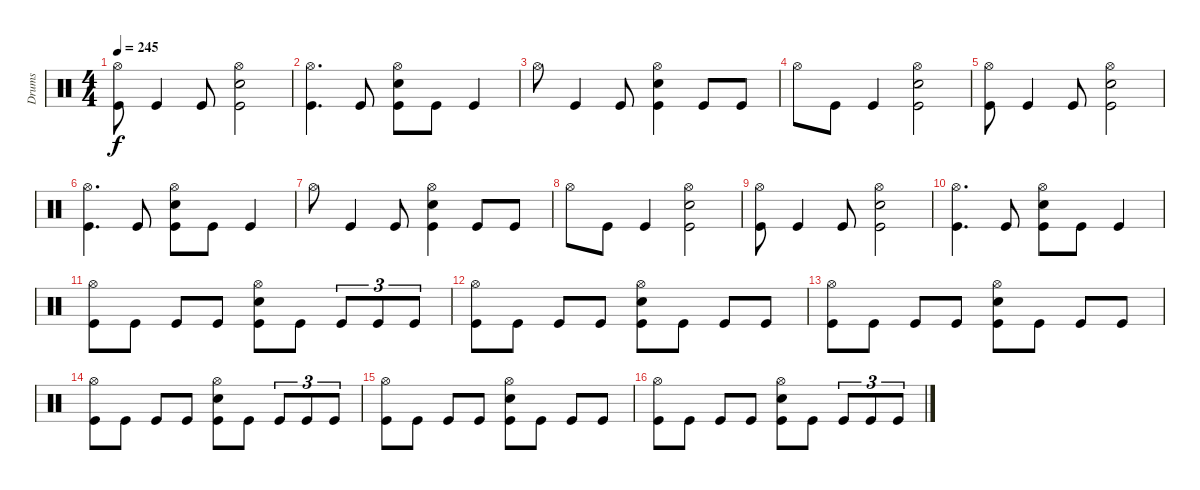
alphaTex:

\track ("Drums" "Drums") {instrument percussion}
\staff {score}
\articulation defaults
\ts (4 4)
\tempo 245
\clef neutral
\ks c
("Hi-Hat (open)" "Kick (hit)").8{dy f} "Kick (hit)".4 "Kick (hit)".8 ("Hi-Hat (open)" "Electric Snare (hit)" "Kick (hit)").2 |
("Hi-Hat (open)" "Kick (hit)").4{d} "Kick (hit)".8 ("Hi-Hat (open)" "Electric Snare (hit)" "Kick (hit)").8 "Kick (hit)".8 "Kick (hit)".4 |
"Hi-Hat (open)".8 "Kick (hit)".4 "Kick (hit)".8 ("Hi-Hat (open)" "Electric Snare (hit)" "Kick (hit)").4 "Kick (hit)".8 "Kick (hit)".8 |
"Hi-Hat (open)".8 "Kick (hit)".8 "Kick (hit)".4 ("Hi-Hat (open)" "Electric Snare (hit)" "Kick (hit)").2 |
("Hi-Hat (open)" "Kick (hit)").8 "Kick (hit)".4 "Kick (hit)".8 ("Hi-Hat (open)" "Electric Snare (hit)" "Kick (hit)").2 |
("Hi-Hat (open)" "Kick (hit)").4{d} "Kick (hit)".8 ("Hi-Hat (open)" "Electric Snare (hit)" "Kick (hit)").8 "Kick (hit)".8 "Kick (hit)".4 |
"Hi-Hat (open)".8 "Kick (hit)".4 "Kick (hit)".8 ("Hi-Hat (open)" "Electric Snare (hit)" "Kick (hit)").4 "Kick (hit)".8 "Kick (hit)".8 |
"Hi-Hat (open)".8 "Kick (hit)".8 "Kick (hit)".4 ("Hi-Hat (open)" "Electric Snare (hit)" "Kick (hit)").2 |
("Hi-Hat (open)" "Kick (hit)").8 "Kick (hit)".4 "Kick (hit)".8 ("Hi-Hat (open)" "Electric Snare (hit)" "Kick (hit)").2 |
("Hi-Hat (open)" "Kick (hit)").4{d} "Kick (hit)".8 ("Hi-Hat (open)" "Electric Snare (hit)" "Kick (hit)").8 "Kick (hit)".8 "Kick (hit)".4 |
("Hi-Hat (open)" "Kick (hit)").8 "Kick (hit)".8 "Kick (hit)".8 "Kick (hit)".8 ("Hi-Hat (open)" "Electric Snare (hit)" "Kick (hit)").8 "Kick (hit)".8 "Kick (hit)".8{tu (3 2)} "Kick (hit)".8{tu (3 2)} "Kick (hit)".8{tu (3 2)} |
("Hi-Hat (open)" "Kick (hit)").8 "Kick (hit)".8 "Kick (hit)".8 "Kick (hit)".8 ("Hi-Hat (open)" "Electric Snare (hit)" "Kick (hit)").8 "Kick (hit)".8 "Kick (hit)".8 "Kick (hit)".8 |
("Hi-Hat (open)" "Kick (hit)").8 "Kick (hit)".8 "Kick (hit)".8 "Kick (hit)".8 ("Hi-Hat (open)" "Electric Snare (hit)" "Kick (hit)").8 "Kick (hit)".8 "Kick (hit)".8 "Kick (hit)".8 |
("Hi-Hat (open)" "Kick (hit)").8 "Kick (hit)".8 "Kick (hit)".8 "Kick (hit)".8 ("Hi-Hat (open)" "Electric Snare (hit)" "Kick (hit)").8 "Kick (hit)".8 "Kick (hit)".8{tu (3 2)} "Kick (hit)".8{tu (3 2)} "Kick (hit)".8{tu (3 2)} |
("Hi-Hat (open)" "Kick (hit)").8 "Kick (hit)".8 "Kick (hit)".8 "Kick (hit)".8 ("Hi-Hat (open)" "Electric Snare (hit)" "Kick (hit)").8 "Kick (hit)".8 "Kick (hit)".8 "Kick (hit)".8 |
("Hi-Hat (open)" "Kick (hit)").8 "Kick (hit)".8 "Kick (hit)".8 "Kick (hit)".8 ("Hi-Hat (open)" "Electric Snare (hit)" "Kick (hit)").8 "Kick (hit)".8 "Kick (hit)".8{tu (3 2)} "Kick (hit)".8{tu (3 2)} "Kick (hit)".8{tu (3 2)}
